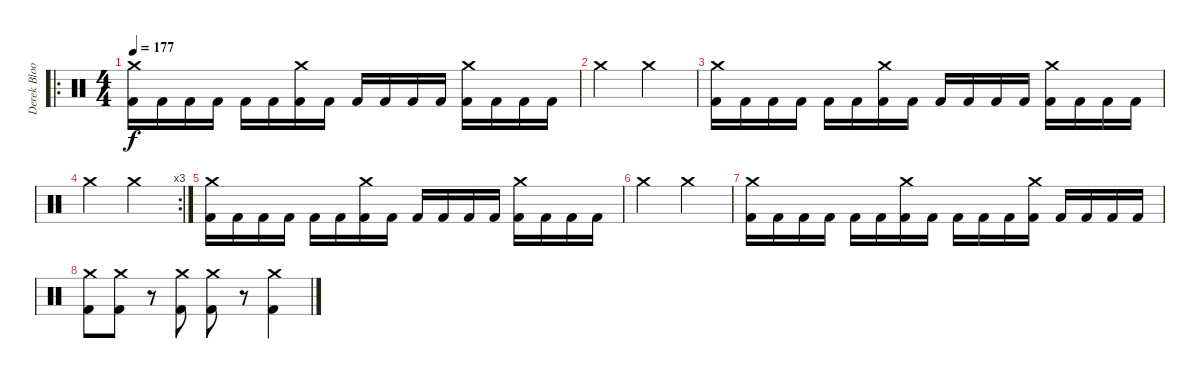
\track ("Derek Bloom" "Derek Bloo") {instrument percussion}
\staff {score}
\articulation defaults
\ro
\ts (4 4)
\tempo 177
\clef neutral
\ks c
("Crash medium (hit)" "Kick (hit) 2").16{dy f} "Kick (hit) 2".16 "Kick (hit) 2".16 "Kick (hit) 2".16 "Kick (hit) 2".16 "Kick (hit) 2".16 ("Crash medium (hit)" "Kick (hit) 2").16 "Kick (hit) 2".16 "Kick (hit) 2".16 "Kick (hit) 2".16 "Kick (hit) 2".16 "Kick (hit) 2".16 ("Crash medium (hit)" "Kick (hit) 2").16 "Kick (hit) 2".16 "Kick (hit) 2".16 "Kick (hit) 2".16 |
"Crash medium (hit)".2 "Crash medium (hit)".2 |
("Crash medium (hit)" "Kick (hit) 2").16 "Kick (hit) 2".16 "Kick (hit) 2".16 "Kick (hit) 2".16 "Kick (hit) 2".16 "Kick (hit) 2".16 ("Crash medium (hit)" "Kick (hit) 2").16 "Kick (hit) 2".16 "Kick (hit) 2".16 "Kick (hit) 2".16 "Kick (hit) 2".16 "Kick (hit) 2".16 ("Crash medium (hit)" "Kick (hit) 2").16 "Kick (hit) 2".16 "Kick (hit) 2".16 "Kick (hit) 2".16 |
\rc 3 "Crash medium (hit)".2 "Crash medium (hit)".2
|
("Crash medium (hit)" "Kick (hit) 2").16 "Kick (hit) 2".16 "Kick (hit) 2".16 "Kick (hit) 2".16 "Kick (hit) 2".16 "Kick (hit) 2".16 ("Crash medium (hit)" "Kick (hit) 2").16 "Kick (hit) 2".16 "Kick (hit) 2".16 "Kick (hit) 2".16 "Kick (hit) 2".16 "Kick (hit) 2".16 ("Crash medium (hit)" "Kick (hit) 2").16 "Kick (hit) 2".16 "Kick (hit) 2".16 "Kick (hit) 2".16 |
"Crash medium (hit)".2 "Crash medium (hit)".2 |
("Crash medium (hit)" "Kick (hit) 2").16 "Kick (hit) 2".16 "Kick (hit) 2".16 "Kick (hit) 2".16 "Kick (hit) 2".16 "Kick (hit) 2".16 ("Crash medium (hit)" "Kick (hit) 2").16 "Kick (hit) 2".16 "Kick (hit) 2".16 "Kick (hit) 2".16 "Kick (hit) 2".16 ("Crash medium (hit)" "Kick (hit) 2").16 "Kick (hit) 2".16 "Kick (hit) 2".16 "Kick (hit) 2".16 "Kick (hit) 2".16 |
("Crash medium (hit)" "Kick (hit) 2").8 ("Crash medium (hit)" "Kick (hit) 2").8 r.8 ("Crash medium (hit)" "Kick (hit) 2").8 ("Crash medium (hit)" "Kick (hit) 2").8 r.8 ("Crash medium (hit)" "Kick (hit) 2").4
